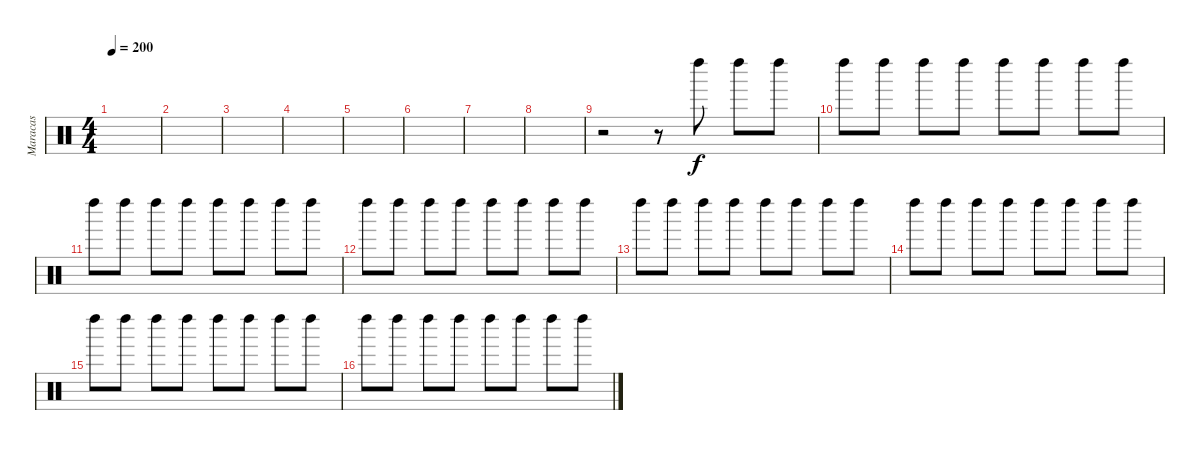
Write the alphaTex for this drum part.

\track ("Maracas" "Maracas") {instrument percussion}
\staff {score}
\articulation defaults
\ts (4 4)
\tempo 200
\clef neutral
\ks c
|
|
|
|
|
|
|
|
r.2 r.8 "Left Maraca (hit)".8 "Left Maraca (hit)".8 "Left Maraca (hit)".8 |
"Left Maraca (hit)".8 "Left Maraca (hit)".8 "Left Maraca (hit)".8 "Left Maraca (hit)".8 "Left Maraca (hit)".8 "Left Maraca (hit)".8 "Left Maraca (hit)".8 "Left Maraca (hit)".8 |
"Left Maraca (hit)".8 "Left Maraca (hit)".8 "Left Maraca (hit)".8 "Left Maraca (hit)".8 "Left Maraca (hit)".8 "Left Maraca (hit)".8 "Left Maraca (hit)".8 "Left Maraca (hit)".8 |
"Left Maraca (hit)".8 "Left Maraca (hit)".8 "Left Maraca (hit)".8 "Left Maraca (hit)".8 "Left Maraca (hit)".8 "Left Maraca (hit)".8 "Left Maraca (hit)".8 "Left Maraca (hit)".8 |
"Left Maraca (hit)".8 "Left Maraca (hit)".8 "Left Maraca (hit)".8 "Left Maraca (hit)".8 "Left Maraca (hit)".8 "Left Maraca (hit)".8 "Left Maraca (hit)".8 "Left Maraca (hit)".8 |
"Left Maraca (hit)".8 "Left Maraca (hit)".8 "Left Maraca (hit)".8 "Left Maraca (hit)".8 "Left Maraca (hit)".8 "Left Maraca (hit)".8 "Left Maraca (hit)".8 "Left Maraca (hit)".8 |
"Left Maraca (hit)".8 "Left Maraca (hit)".8 "Left Maraca (hit)".8 "Left Maraca (hit)".8 "Left Maraca (hit)".8 "Left Maraca (hit)".8 "Left Maraca (hit)".8 "Left Maraca (hit)".8 |
"Left Maraca (hit)".8 "Left Maraca (hit)".8 "Left Maraca (hit)".8 "Left Maraca (hit)".8 "Left Maraca (hit)".8 "Left Maraca (hit)".8 "Left Maraca (hit)".8 "Left Maraca (hit)".8
